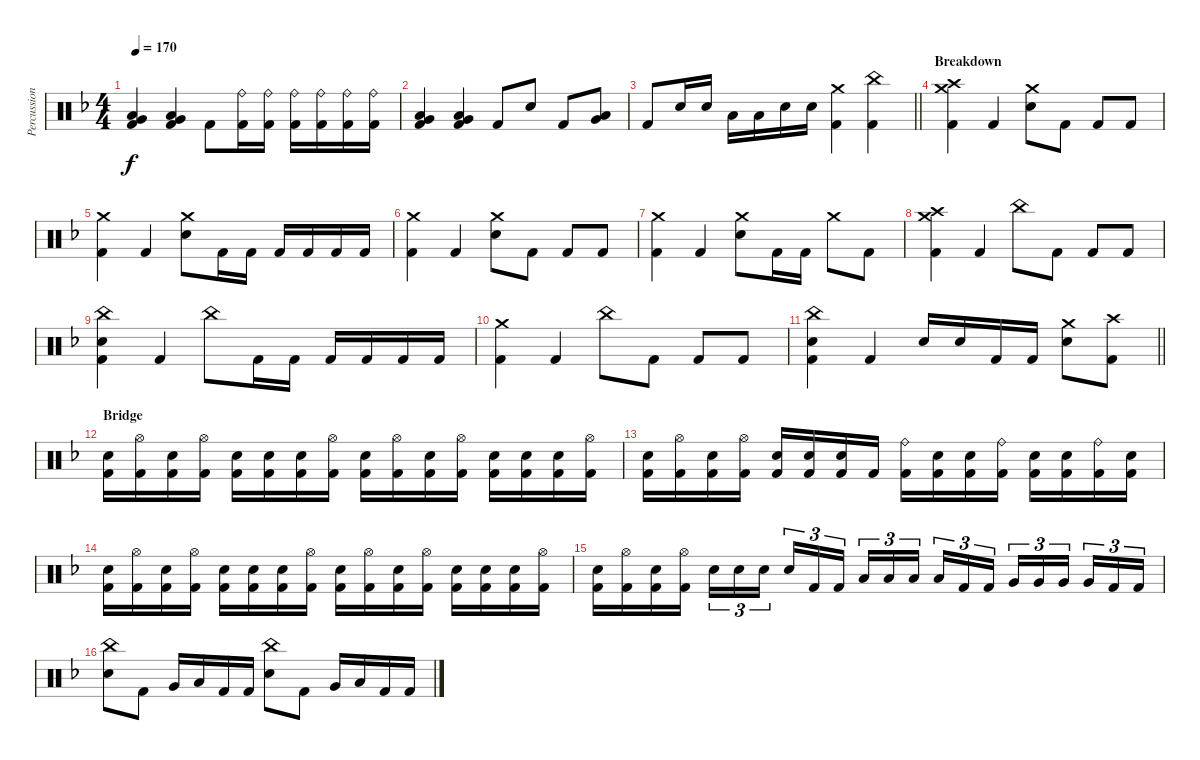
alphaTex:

\track ("Percussion" "Percussion") {instrument percussion}
\staff {score}
\articulation defaults
\ts (4 4)
\tempo 170
\clef neutral
\ks dminor
("Very Low Tom (hit)" "Low Floor Tom (hit)" "Kick (hit) 2").4{dy f} ("Very Low Tom (hit)" "Low Floor Tom (hit)" "Kick (hit) 2").4 "Kick (hit) 2".8 ("Ride (bell)" "Kick (hit) 2").16 ("Ride (bell)" "Kick (hit) 2").16 ("Ride (bell)" "Kick (hit) 2").16 ("Ride (bell)" "Kick (hit) 2").16 ("Ride (bell)" "Kick (hit) 2").16 ("Ride (bell)" "Kick (hit) 2").16 |
("Very Low Tom (hit)" "Low Floor Tom (hit)" "Kick (hit) 2").4 ("Very Low Tom (hit)" "Low Floor Tom (hit)" "Kick (hit) 2").4 "Kick (hit) 2".8 "Electric Snare (hit)".8 "Kick (hit) 2".8 ("Low Tom (hit)" "Very Low Tom (hit)").8 |
\barLineRight lightlight "Kick (hit) 2".8 "Electric Snare (hit)".16 "Electric Snare (hit)".16 "Low Tom (hit)".16 "Low Tom (hit)".16 "Electric Snare (hit)".16 "Electric Snare (hit)".16
("Crash medium (hit)" "Kick (hit) 2").4 ("China (hit)" "Kick (hit) 2").4 |
\section ("" "Breakdown")
("Crash medium (hit)" "Crash high (hit)" "Kick (hit) 2").4 "Kick (hit) 2".4 ("Crash medium (hit)" "Electric Snare (hit)").8 "Kick (hit) 2".8 "Kick (hit) 2".8 "Kick (hit) 2".8 |
("Crash medium (hit)" "Kick (hit) 2").4 "Kick (hit) 2".4 ("Crash medium (hit)" "Electric Snare (hit)").8 "Kick (hit) 2".16 "Kick (hit) 2".16 "Kick (hit) 2".16 "Kick (hit) 2".16 "Kick (hit) 2".16 "Kick (hit) 2".16 |
("Crash medium (hit)" "Kick (hit) 2").4 "Kick (hit) 2".4 ("Crash medium (hit)" "Electric Snare (hit)").8 "Kick (hit) 2".8 "Kick (hit) 2".8 "Kick (hit) 2".8 |
("Crash medium (hit)" "Kick (hit) 2").4 "Kick (hit) 2".4 ("Crash medium (hit)" "Electric Snare (hit)").8 "Kick (hit) 2".16 "Kick (hit) 2".16 "Crash medium (hit)".8 "Kick (hit) 2".8 |
("Crash medium (hit)" "Crash high (hit)" "Kick (hit) 2").4 "Kick (hit) 2".4 "China (hit)".8 "Kick (hit) 2".8 "Kick (hit) 2".8 "Kick (hit) 2".8 |
("China (hit)" "Electric Snare (hit)" "Kick (hit) 2").4 "Kick (hit) 2".4 "China (hit)".8 "Kick (hit) 2".16 "Kick (hit) 2".16 "Kick (hit) 2".16 "Kick (hit) 2".16 "Kick (hit) 2".16 "Kick (hit) 2".16 |
("Crash medium (hit)" "Kick (hit) 2").4 "Kick (hit) 2".4 "China (hit)".8 "Kick (hit) 2".8 "Kick (hit) 2".8 "Kick (hit) 2".8 |
\barLineRight lightlight
("China (hit)" "Electric Snare (hit)" "Kick (hit) 2").4 "Kick (hit) 2".4 "Electric Snare (hit)".16 "Electric Snare (hit)".16 "Kick (hit) 2".16 "Kick (hit) 2".16 ("Crash medium (hit)" "Electric Snare (hit)").8 ("Crash high (hit)" "Kick (hit) 2").8 |
\section ("" "Bridge")
("Electric Snare (hit)" "Kick (hit) 2").16 ("Hi-Hat (open)" "Kick (hit) 2").16 ("Electric Snare (hit)" "Kick (hit) 2").16 ("Hi-Hat (open)" "Kick (hit) 2").16 ("Electric Snare (hit)" "Kick (hit) 2").16 ("Electric Snare (hit)" "Kick (hit) 2").16 ("Electric Snare (hit)" "Kick (hit) 2").16 ("Hi-Hat (open)" "Kick (hit) 2").16 ("Electric Snare (hit)" "Kick (hit) 2").16 ("Hi-Hat (open)" "Kick (hit) 2").16 ("Electric Snare (hit)" "Kick (hit) 2").16 ("Hi-Hat (open)" "Kick (hit) 2").16 ("Electric Snare (hit)" "Kick (hit) 2").16 ("Electric Snare (hit)" "Kick (hit) 2").16 ("Electric Snare (hit)" "Kick (hit) 2").16 ("Hi-Hat (open)" "Kick (hit) 2").16 |
("Electric Snare (hit)" "Kick (hit) 2").16 ("Hi-Hat (open)" "Kick (hit) 2").16 ("Electric Snare (hit)" "Kick (hit) 2").16 ("Hi-Hat (open)" "Kick (hit) 2").16 ("Electric Snare (hit)" "Kick (hit) 2").16 ("Electric Snare (hit)" "Kick (hit) 2").16 ("Electric Snare (hit)" "Kick (hit) 2").16 "Kick (hit) 2".16 ("Ride (bell)" "Kick (hit) 2").16 ("Electric Snare (hit)" "Kick (hit) 2").16 ("Electric Snare (hit)" "Kick (hit) 2").16 ("Ride (bell)" "Kick (hit) 2").16 ("Electric Snare (hit)" "Kick (hit) 2").16 ("Electric Snare (hit)" "Kick (hit) 2").16 ("Ride (bell)" "Kick (hit) 2").16 ("Electric Snare (hit)" "Kick (hit) 2").16 |
("Electric Snare (hit)" "Kick (hit) 2").16 ("Hi-Hat (open)" "Kick (hit) 2").16 ("Electric Snare (hit)" "Kick (hit) 2").16 ("Hi-Hat (open)" "Kick (hit) 2").16 ("Electric Snare (hit)" "Kick (hit) 2").16 ("Electric Snare (hit)" "Kick (hit) 2").16 ("Electric Snare (hit)" "Kick (hit) 2").16 ("Hi-Hat (open)" "Kick (hit) 2").16 ("Electric Snare (hit)" "Kick (hit) 2").16 ("Hi-Hat (open)" "Kick (hit) 2").16 ("Electric Snare (hit)" "Kick (hit) 2").16 ("Hi-Hat (open)" "Kick (hit) 2").16 ("Electric Snare (hit)" "Kick (hit) 2").16 ("Electric Snare (hit)" "Kick (hit) 2").16 ("Electric Snare (hit)" "Kick (hit) 2").16 ("Hi-Hat (open)" "Kick (hit) 2").16 |
("Electric Snare (hit)" "Kick (hit) 2").16 ("Hi-Hat (open)" "Kick (hit) 2").16 ("Electric Snare (hit)" "Kick (hit) 2").16 ("Hi-Hat (open)" "Kick (hit) 2").16 "Electric Snare (hit)".16{tu (3 2)} "Electric Snare (hit)".16{tu (3 2)} "Electric Snare (hit)".16{tu (3 2) beam splitsecondary} "Electric Snare (hit)".16{tu (3 2)} "Kick (hit) 2".16{tu (3 2)} "Kick (hit) 2".16{tu (3 2)} "Low Tom (hit)".16{tu (3 2)} "Low Tom (hit)".16{tu (3 2)} "Low Tom (hit)".16{tu (3 2) beam splitsecondary} "Low Tom (hit)".16{tu (3 2)} "Kick (hit) 2".16{tu (3 2)} "Kick (hit) 2".16{tu (3 2)} "Very Low Tom (hit)".16{tu (3 2)} "Very Low Tom (hit)".16{tu (3 2)} "Very Low Tom (hit)".16{tu (3 2) beam splitsecondary} "Very Low Tom (hit)".16{tu (3 2)} "Kick (hit) 2".16{tu (3 2)} "Kick (hit) 2".16{tu (3 2)} |
("China (hit)" "Electric Snare (hit)").8 "Kick (hit) 2".8 "Very Low Tom (hit)".16 "Low Tom (hit)".16 "Kick (hit) 2".16 "Kick (hit) 2".16 ("China (hit)" "Electric Snare (hit)").8 "Kick (hit) 2".8 "Very Low Tom (hit)".16 "Low Tom (hit)".16 "Kick (hit) 2".16 "Kick (hit) 2".16
